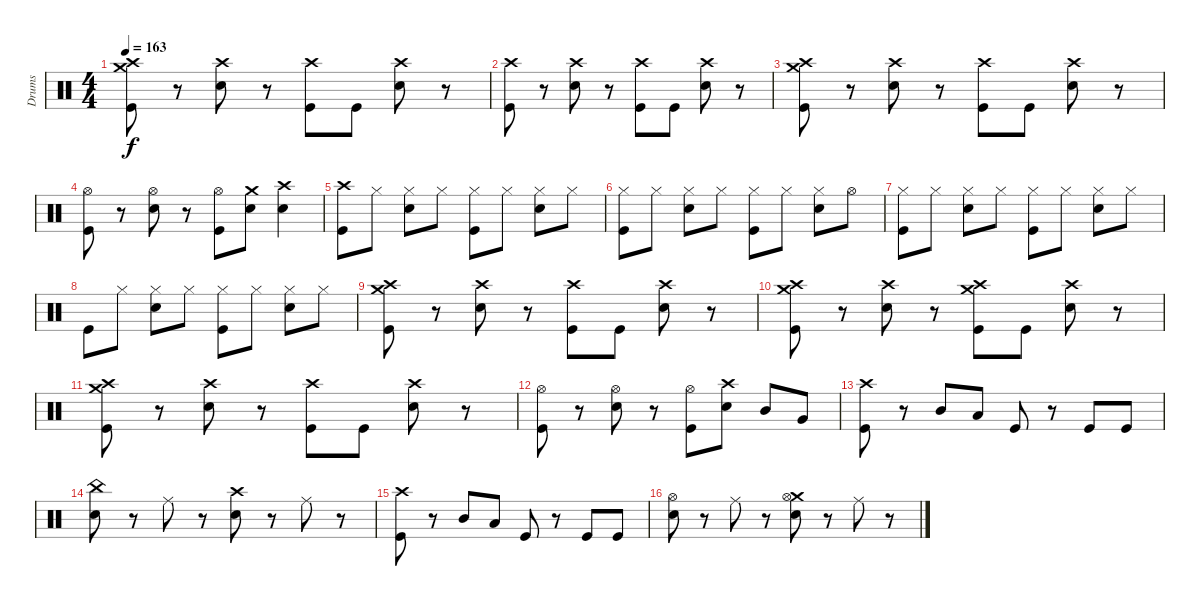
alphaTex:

\track ("Drums" "Drums") {instrument percussion}
\staff {score}
\articulation defaults
\ts (4 4)
\tempo 163
\clef neutral
\ks c
("Crash high (hit)" "Crash medium (hit)" "Kick (hit)").8{dy f} r.8 ("Crash high (hit)" "Electric Snare (hit)").8 r.8 ("Crash high (hit)" "Kick (hit)").8 "Kick (hit)".8 ("Crash high (hit)" "Electric Snare (hit)").8 r.8 |
("Crash high (hit)" "Kick (hit)").8 r.8 ("Crash high (hit)" "Electric Snare (hit)").8 r.8 ("Crash high (hit)" "Kick (hit)").8 "Kick (hit)".8 ("Crash high (hit)" "Electric Snare (hit)").8 r.8 |
("Crash high (hit)" "Crash medium (hit)" "Kick (hit)").8 r.8 ("Crash high (hit)" "Electric Snare (hit)").8 r.8 ("Crash high (hit)" "Kick (hit)").8 "Kick (hit)".8 ("Crash high (hit)" "Electric Snare (hit)").8 r.8 |
("Hi-Hat (open)" "Kick (hit)").8 r.8 ("Hi-Hat (open)" "Electric Snare (hit)").8 r.8 ("Hi-Hat (open)" "Kick (hit)").8 ("Crash medium (hit)" "Electric Snare (hit)").8 ("Crash high (hit)" "Electric Snare (hit)").4 |
("Crash high (hit)" "Kick (hit)").8 "Hi-Hat (closed)".8 ("Hi-Hat (closed)" "Electric Snare (hit)").8 "Hi-Hat (closed)".8 ("Hi-Hat (closed)" "Kick (hit)").8 "Hi-Hat (closed)".8 ("Hi-Hat (closed)" "Electric Snare (hit)").8 "Hi-Hat (closed)".8 |
("Hi-Hat (closed)" "Kick (hit)").8 "Hi-Hat (closed)".8 ("Hi-Hat (closed)" "Electric Snare (hit)").8 "Hi-Hat (closed)".8 ("Hi-Hat (closed)" "Kick (hit)").8 "Hi-Hat (closed)".8 ("Hi-Hat (closed)" "Electric Snare (hit)").8 "Hi-Hat (open)".8 |
("Hi-Hat (closed)" "Kick (hit)").8 "Hi-Hat (closed)".8 ("Hi-Hat (closed)" "Electric Snare (hit)").8 "Hi-Hat (closed)".8 ("Hi-Hat (closed)" "Kick (hit)").8 "Hi-Hat (closed)".8 ("Hi-Hat (closed)" "Electric Snare (hit)").8 "Hi-Hat (closed)".8 |
"Kick (hit)".8 "Hi-Hat (closed)".8 ("Hi-Hat (closed)" "Electric Snare (hit)").8 "Hi-Hat (closed)".8 ("Hi-Hat (closed)" "Kick (hit)").8 "Hi-Hat (closed)".8 ("Hi-Hat (closed)" "Electric Snare (hit)").8 "Hi-Hat (closed)".8 |
("Crash high (hit)" "Crash medium (hit)" "Kick (hit)").8 r.8 ("Crash high (hit)" "Electric Snare (hit)").8 r.8 ("Crash high (hit)" "Kick (hit)").8 "Kick (hit)".8 ("Crash high (hit)" "Electric Snare (hit)").8 r.8 |
("Crash high (hit)" "Crash medium (hit)" "Kick (hit)").8 r.8 ("Crash high (hit)" "Electric Snare (hit)").8 r.8 ("Crash high (hit)" "Crash medium (hit)" "Kick (hit)").8 "Kick (hit)".8 ("Crash high (hit)" "Electric Snare (hit)").8 r.8 |
("Crash high (hit)" "Crash medium (hit)" "Kick (hit)").8 r.8 ("Crash high (hit)" "Electric Snare (hit)").8 r.8 ("Crash high (hit)" "Kick (hit)").8 "Kick (hit)".8 ("Crash high (hit)" "Electric Snare (hit)").8 r.8 |
("Hi-Hat (open)" "Kick (hit)").8 r.8 ("Hi-Hat (open)" "Electric Snare (hit)").8 r.8 ("Hi-Hat (open)" "Kick (hit)").8 ("Crash high (hit)" "Electric Snare (hit)").8 "Mid Tom (hit)".8 "Very Low Tom (hit)".8 |
("Crash high (hit)" "Kick (hit)").8 r.8 "Mid Tom (hit)".8 "Low Tom (hit)".8 "Kick (hit)".8 r.8 "Kick (hit)".8 "Kick (hit)".8 |
("China (hit)" "Electric Snare (hit)").8 r.8 "Ride (middle)".8 r.8 ("Crash high (hit)" "Electric Snare (hit)").8 r.8 "Ride (middle)".8 r.8 |
("Crash high (hit)" "Kick (hit)").8 r.8 "Mid Tom (hit)".8 "Low Tom (hit)".8 "Kick (hit)".8 r.8 "Kick (hit)".8 "Kick (hit)".8 |
("Hi-Hat (open)" "Electric Snare (hit)").8 r.8 "Ride (middle)".8 r.8 ("Crash medium (hit)" "Hi-Hat (open)" "Electric Snare (hit)").8 r.8 "Ride (middle)".8 r.8
